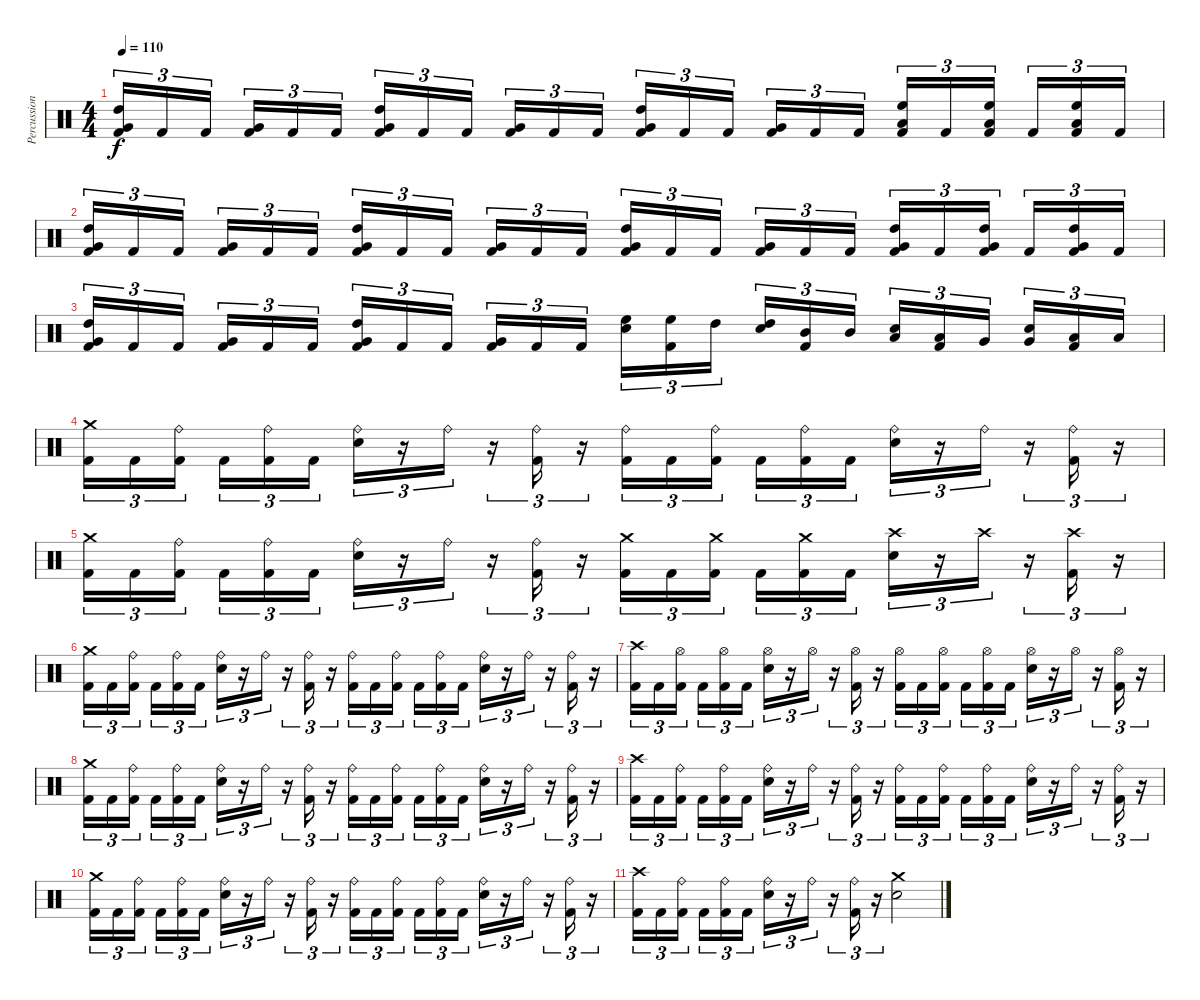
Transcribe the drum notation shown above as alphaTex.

\track ("Percussion" "Percussion") {instrument percussion}
\staff {score}
\articulation defaults
\ts (4 4)
\tempo 110
\clef neutral
\ks c
("High Tom (hit)" "Very Low Tom (hit)" "Kick (hit) 2").16{tu (3 2) dy f} "Kick (hit) 2".16{tu (3 2)} "Kick (hit) 2".16{tu (3 2)} ("Very Low Tom (hit)" "Kick (hit) 2").16{tu (3 2)} "Kick (hit) 2".16{tu (3 2)} "Kick (hit) 2".16{tu (3 2)} ("High Tom (hit)" "Very Low Tom (hit)" "Kick (hit) 2").16{tu (3 2)} "Kick (hit) 2".16{tu (3 2)} "Kick (hit) 2".16{tu (3 2)} ("Very Low Tom (hit)" "Kick (hit) 2").16{tu (3 2)} "Kick (hit) 2".16{tu (3 2)} "Kick (hit) 2".16{tu (3 2)} ("High Tom (hit)" "Very Low Tom (hit)" "Kick (hit) 2").16{tu (3 2)} "Kick (hit) 2".16{tu (3 2)} "Kick (hit) 2".16{tu (3 2)} ("Very Low Tom (hit)" "Kick (hit) 2").16{tu (3 2)} "Kick (hit) 2".16{tu (3 2)} "Kick (hit) 2".16{tu (3 2)} ("High Floor Tom (hit)" "Low Tom (hit)" "Kick (hit) 2").16{tu (3 2)} "Kick (hit) 2".16{tu (3 2)} ("High Floor Tom (hit)" "Low Tom (hit)" "Kick (hit) 2").16{tu (3 2)} "Kick (hit) 2".16{tu (3 2)} ("High Floor Tom (hit)" "Low Tom (hit)" "Kick (hit) 2").16{tu (3 2)} "Kick (hit) 2".16{tu (3 2)} |
("High Tom (hit)" "Very Low Tom (hit)" "Kick (hit) 2").16{tu (3 2)} "Kick (hit) 2".16{tu (3 2)} "Kick (hit) 2".16{tu (3 2)} ("Very Low Tom (hit)" "Kick (hit) 2").16{tu (3 2)} "Kick (hit) 2".16{tu (3 2)} "Kick (hit) 2".16{tu (3 2)} ("High Tom (hit)" "Very Low Tom (hit)" "Kick (hit) 2").16{tu (3 2)} "Kick (hit) 2".16{tu (3 2)} "Kick (hit) 2".16{tu (3 2)} ("Very Low Tom (hit)" "Kick (hit) 2").16{tu (3 2)} "Kick (hit) 2".16{tu (3 2)} "Kick (hit) 2".16{tu (3 2)} ("High Tom (hit)" "Very Low Tom (hit)" "Kick (hit) 2").16{tu (3 2)} "Kick (hit) 2".16{tu (3 2)} "Kick (hit) 2".16{tu (3 2)} ("Very Low Tom (hit)" "Kick (hit) 2").16{tu (3 2)} "Kick (hit) 2".16{tu (3 2)} "Kick (hit) 2".16{tu (3 2)} ("High Tom (hit)" "Very Low Tom (hit)" "Kick (hit) 2").16{tu (3 2)} "Kick (hit) 2".16{tu (3 2)} ("High Tom (hit)" "Very Low Tom (hit)" "Kick (hit) 2").16{tu (3 2)} "Kick (hit) 2".16{tu (3 2)} ("High Tom (hit)" "Very Low Tom (hit)" "Kick (hit) 2").16{tu (3 2)} "Kick (hit) 2".16{tu (3 2)} |
("High Tom (hit)" "Very Low Tom (hit)" "Kick (hit) 2").16{tu (3 2)} "Kick (hit) 2".16{tu (3 2)} "Kick (hit) 2".16{tu (3 2)} ("Very Low Tom (hit)" "Kick (hit) 2").16{tu (3 2)} "Kick (hit) 2".16{tu (3 2)} "Kick (hit) 2".16{tu (3 2)} ("High Tom (hit)" "Very Low Tom (hit)" "Kick (hit) 2").16{tu (3 2)} "Kick (hit) 2".16{tu (3 2)} "Kick (hit) 2".16{tu (3 2)} ("Very Low Tom (hit)" "Kick (hit) 2").16{tu (3 2)} "Kick (hit) 2".16{tu (3 2)} "Kick (hit) 2".16{tu (3 2)} ("Electric Snare (hit)" "High Floor Tom (hit)").16{tu (3 2)} ("High Floor Tom (hit)" "Kick (hit) 2").16{tu (3 2)} "High Tom (hit)".16{tu (3 2)} ("Electric Snare (hit)" "High Tom (hit)").16{tu (3 2)} ("Mid Tom (hit)" "Kick (hit) 2").16{tu (3 2)} "Mid Tom (hit)".16{tu (3 2)} ("Electric Snare (hit)" "Low Tom (hit)").16{tu (3 2)} ("Low Tom (hit)" "Kick (hit) 2").16{tu (3 2)} "Very Low Tom (hit)".16{tu (3 2)} ("Electric Snare (hit)" "Very Low Tom (hit)").16{tu (3 2)} ("Low Floor Tom (hit)" "Kick (hit) 2").16{tu (3 2)} "Low Floor Tom (hit)".16{tu (3 2)} |
("Crash medium (hit)" "Kick (hit) 2").16{tu (3 2)} "Kick (hit) 2".16{tu (3 2)} ("Ride (bell)" "Kick (hit) 2").16{tu (3 2)} "Kick (hit) 2".16{tu (3 2)} ("Ride (bell)" "Kick (hit) 2").16{tu (3 2)} "Kick (hit) 2".16{tu (3 2)} ("Ride (bell)" "Electric Snare (hit)").16{tu (3 2)} r.16{tu (3 2)} "Ride (bell)".16{tu (3 2)} r.16{tu (3 2)} ("Ride (bell)" "Kick (hit) 2").16{tu (3 2)} r.16{tu (3 2)} ("Ride (bell)" "Kick (hit) 2").16{tu (3 2)} "Kick (hit) 2".16{tu (3 2)} ("Ride (bell)" "Kick (hit) 2").16{tu (3 2)} "Kick (hit) 2".16{tu (3 2)} ("Ride (bell)" "Kick (hit) 2").16{tu (3 2)} "Kick (hit) 2".16{tu (3 2)} ("Ride (bell)" "Electric Snare (hit)").16{tu (3 2)} r.16{tu (3 2)} "Ride (bell)".16{tu (3 2)} r.16{tu (3 2)} ("Ride (bell)" "Kick (hit) 2").16{tu (3 2)} r.16{tu (3 2)} |
("Crash medium (hit)" "Kick (hit) 2").16{tu (3 2)} "Kick (hit) 2".16{tu (3 2)} ("Ride (bell)" "Kick (hit) 2").16{tu (3 2)} "Kick (hit) 2".16{tu (3 2)} ("Ride (bell)" "Kick (hit) 2").16{tu (3 2)} "Kick (hit) 2".16{tu (3 2)} ("Ride (bell)" "Electric Snare (hit)").16{tu (3 2)} r.16{tu (3 2)} "Ride (bell)".16{tu (3 2)} r.16{tu (3 2)} ("Ride (bell)" "Kick (hit) 2").16{tu (3 2)} r.16{tu (3 2)} ("Crash medium (hit)" "Kick (hit) 2").16{tu (3 2)} "Kick (hit) 2".16{tu (3 2)} ("Crash medium (hit)" "Kick (hit) 2").16{tu (3 2)} "Kick (hit) 2".16{tu (3 2)} ("Crash medium (hit)" "Kick (hit) 2").16{tu (3 2)} "Kick (hit) 2".16{tu (3 2)} ("Crash high (hit)" "Electric Snare (hit)").16{tu (3 2)} r.16{tu (3 2)} "Crash high (hit)".16{tu (3 2)} r.16{tu (3 2)} ("Crash high (hit)" "Kick (hit) 2").16{tu (3 2)} r.16{tu (3 2)} |
("Crash medium (hit)" "Kick (hit) 2").16{tu (3 2)} "Kick (hit) 2".16{tu (3 2)} ("Ride (bell)" "Kick (hit) 2").16{tu (3 2)} "Kick (hit) 2".16{tu (3 2)} ("Ride (bell)" "Kick (hit) 2").16{tu (3 2)} "Kick (hit) 2".16{tu (3 2)} ("Ride (bell)" "Electric Snare (hit)").16{tu (3 2)} r.16{tu (3 2)} "Ride (bell)".16{tu (3 2)} r.16{tu (3 2)} ("Ride (bell)" "Kick (hit) 2").16{tu (3 2)} r.16{tu (3 2)} ("Ride (bell)" "Kick (hit) 2").16{tu (3 2)} "Kick (hit) 2".16{tu (3 2)} ("Ride (bell)" "Kick (hit) 2").16{tu (3 2)} "Kick (hit) 2".16{tu (3 2)} ("Ride (bell)" "Kick (hit) 2").16{tu (3 2)} "Kick (hit) 2".16{tu (3 2)} ("Ride (bell)" "Electric Snare (hit)").16{tu (3 2)} r.16{tu (3 2)} "Ride (bell)".16{tu (3 2)} r.16{tu (3 2)} ("Ride (bell)" "Kick (hit) 2").16{tu (3 2)} r.16{tu (3 2)} |
("Crash high (hit)" "Kick (hit) 2").16{tu (3 2)} "Kick (hit) 2".16{tu (3 2)} ("Hi-Hat (open)" "Kick (hit) 2").16{tu (3 2)} "Kick (hit) 2".16{tu (3 2)} ("Hi-Hat (open)" "Kick (hit) 2").16{tu (3 2)} "Kick (hit) 2".16{tu (3 2)} ("Hi-Hat (open)" "Electric Snare (hit)").16{tu (3 2)} r.16{tu (3 2)} "Hi-Hat (open)".16{tu (3 2)} r.16{tu (3 2)} ("Hi-Hat (open)" "Kick (hit) 2").16{tu (3 2)} r.16{tu (3 2)} ("Hi-Hat (open)" "Kick (hit) 2").16{tu (3 2)} "Kick (hit) 2".16{tu (3 2)} ("Hi-Hat (open)" "Kick (hit) 2").16{tu (3 2)} "Kick (hit) 2".16{tu (3 2)} ("Hi-Hat (open)" "Kick (hit) 2").16{tu (3 2)} "Kick (hit) 2".16{tu (3 2)} ("Hi-Hat (open)" "Electric Snare (hit)").16{tu (3 2)} r.16{tu (3 2)} "Hi-Hat (open)".16{tu (3 2)} r.16{tu (3 2)} ("Hi-Hat (open)" "Kick (hit) 2").16{tu (3 2)} r.16{tu (3 2)} |
("Crash medium (hit)" "Kick (hit) 2").16{tu (3 2)} "Kick (hit) 2".16{tu (3 2)} ("Ride (bell)" "Kick (hit) 2").16{tu (3 2)} "Kick (hit) 2".16{tu (3 2)} ("Ride (bell)" "Kick (hit) 2").16{tu (3 2)} "Kick (hit) 2".16{tu (3 2)} ("Ride (bell)" "Electric Snare (hit)").16{tu (3 2)} r.16{tu (3 2)} "Ride (bell)".16{tu (3 2)} r.16{tu (3 2)} ("Ride (bell)" "Kick (hit) 2").16{tu (3 2)} r.16{tu (3 2)} ("Ride (bell)" "Kick (hit) 2").16{tu (3 2)} "Kick (hit) 2".16{tu (3 2)} ("Ride (bell)" "Kick (hit) 2").16{tu (3 2)} "Kick (hit) 2".16{tu (3 2)} ("Ride (bell)" "Kick (hit) 2").16{tu (3 2)} "Kick (hit) 2".16{tu (3 2)} ("Ride (bell)" "Electric Snare (hit)").16{tu (3 2)} r.16{tu (3 2)} "Ride (bell)".16{tu (3 2)} r.16{tu (3 2)} ("Ride (bell)" "Kick (hit) 2").16{tu (3 2)} r.16{tu (3 2)} |
("Crash high (hit)" "Kick (hit) 2").16{tu (3 2)} "Kick (hit) 2".16{tu (3 2)} ("Ride (bell)" "Kick (hit) 2").16{tu (3 2)} "Kick (hit) 2".16{tu (3 2)} ("Ride (bell)" "Kick (hit) 2").16{tu (3 2)} "Kick (hit) 2".16{tu (3 2)} ("Ride (bell)" "Electric Snare (hit)").16{tu (3 2)} r.16{tu (3 2)} "Ride (bell)".16{tu (3 2)} r.16{tu (3 2)} ("Ride (bell)" "Kick (hit) 2").16{tu (3 2)} r.16{tu (3 2)} ("Ride (bell)" "Kick (hit) 2").16{tu (3 2)} "Kick (hit) 2".16{tu (3 2)} ("Ride (bell)" "Kick (hit) 2").16{tu (3 2)} "Kick (hit) 2".16{tu (3 2)} ("Ride (bell)" "Kick (hit) 2").16{tu (3 2)} "Kick (hit) 2".16{tu (3 2)} ("Ride (bell)" "Electric Snare (hit)").16{tu (3 2)} r.16{tu (3 2)} "Ride (bell)".16{tu (3 2)} r.16{tu (3 2)} ("Ride (bell)" "Kick (hit) 2").16{tu (3 2)} r.16{tu (3 2)} |
("Crash medium (hit)" "Kick (hit) 2").16{tu (3 2)} "Kick (hit) 2".16{tu (3 2)} ("Ride (bell)" "Kick (hit) 2").16{tu (3 2)} "Kick (hit) 2".16{tu (3 2)} ("Ride (bell)" "Kick (hit) 2").16{tu (3 2)} "Kick (hit) 2".16{tu (3 2)} ("Ride (bell)" "Electric Snare (hit)").16{tu (3 2)} r.16{tu (3 2)} "Ride (bell)".16{tu (3 2)} r.16{tu (3 2)} ("Ride (bell)" "Kick (hit) 2").16{tu (3 2)} r.16{tu (3 2)} ("Ride (bell)" "Kick (hit) 2").16{tu (3 2)} "Kick (hit) 2".16{tu (3 2)} ("Ride (bell)" "Kick (hit) 2").16{tu (3 2)} "Kick (hit) 2".16{tu (3 2)} ("Ride (bell)" "Kick (hit) 2").16{tu (3 2)} "Kick (hit) 2".16{tu (3 2)} ("Ride (bell)" "Electric Snare (hit)").16{tu (3 2)} r.16{tu (3 2)} "Ride (bell)".16{tu (3 2)} r.16{tu (3 2)} ("Ride (bell)" "Kick (hit) 2").16{tu (3 2)} r.16{tu (3 2)} |
("Crash high (hit)" "Kick (hit) 2").16{tu (3 2)} "Kick (hit) 2".16{tu (3 2)} ("Ride (bell)" "Kick (hit) 2").16{tu (3 2)} "Kick (hit) 2".16{tu (3 2)} ("Ride (bell)" "Kick (hit) 2").16{tu (3 2)} "Kick (hit) 2".16{tu (3 2)} ("Ride (bell)" "Electric Snare (hit)").16{tu (3 2)} r.16{tu (3 2)} "Ride (bell)".16{tu (3 2)} r.16{tu (3 2)} ("Ride (bell)" "Kick (hit) 2").16{tu (3 2)} r.16{tu (3 2)} ("Crash medium (hit)" "Electric Snare (hit)").2
